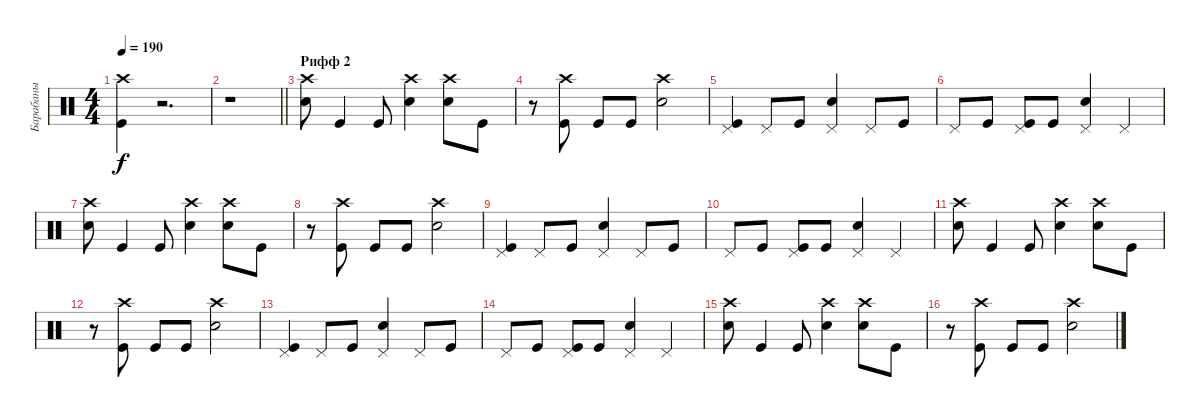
\track ("Барабаны" "Барабаны") {instrument percussion}
\staff {score}
\articulation defaults
\ts (4 4)
\tempo 190
\clef neutral
\ks c
("Kick (hit)" "Crash high (hit)").4{dy f} r.2{d} |
\barLineRight lightlight
r.1 |
\section ("" "Рифф 2")
("Snare (hit) 2" "Crash high (hit)").8 "Kick (hit)".4 "Kick (hit)".8 ("Snare (hit) 2" "Crash high (hit)").4 ("Snare (hit) 2" "Crash high (hit)").8 "Kick (hit)".8 |
r.8 ("Kick (hit)" "Crash high (hit)").8 "Kick (hit)".8 "Kick (hit)".8 ("Snare (hit) 2" "Crash high (hit)").2 |
("Kick (hit)" "Pedal Hi-Hat (hit)").4 "Pedal Hi-Hat (hit)".8 "Kick (hit)".8 ("Snare (hit) 2" "Pedal Hi-Hat (hit)").4 "Pedal Hi-Hat (hit)".8 "Kick (hit)".8 |
"Pedal Hi-Hat (hit)".8 "Kick (hit)".8 ("Kick (hit)" "Pedal Hi-Hat (hit)").8 "Kick (hit)".8 ("Snare (hit) 2" "Pedal Hi-Hat (hit)").4 "Pedal Hi-Hat (hit)".4 |
("Snare (hit) 2" "Crash high (hit)").8 "Kick (hit)".4 "Kick (hit)".8 ("Snare (hit) 2" "Crash high (hit)").4 ("Snare (hit) 2" "Crash high (hit)").8 "Kick (hit)".8 |
r.8 ("Kick (hit)" "Crash high (hit)").8 "Kick (hit)".8 "Kick (hit)".8 ("Snare (hit) 2" "Crash high (hit)").2 |
("Kick (hit)" "Pedal Hi-Hat (hit)").4 "Pedal Hi-Hat (hit)".8 "Kick (hit)".8 ("Snare (hit) 2" "Pedal Hi-Hat (hit)").4 "Pedal Hi-Hat (hit)".8 "Kick (hit)".8 |
"Pedal Hi-Hat (hit)".8 "Kick (hit)".8 ("Kick (hit)" "Pedal Hi-Hat (hit)").8 "Kick (hit)".8 ("Snare (hit) 2" "Pedal Hi-Hat (hit)").4 "Pedal Hi-Hat (hit)".4 |
("Snare (hit) 2" "Crash high (hit)").8 "Kick (hit)".4 "Kick (hit)".8 ("Snare (hit) 2" "Crash high (hit)").4 ("Snare (hit) 2" "Crash high (hit)").8 "Kick (hit)".8 |
r.8 ("Kick (hit)" "Crash high (hit)").8 "Kick (hit)".8 "Kick (hit)".8 ("Snare (hit) 2" "Crash high (hit)").2 |
("Kick (hit)" "Pedal Hi-Hat (hit)").4 "Pedal Hi-Hat (hit)".8 "Kick (hit)".8 ("Snare (hit) 2" "Pedal Hi-Hat (hit)").4 "Pedal Hi-Hat (hit)".8 "Kick (hit)".8 |
"Pedal Hi-Hat (hit)".8 "Kick (hit)".8 ("Kick (hit)" "Pedal Hi-Hat (hit)").8 "Kick (hit)".8 ("Snare (hit) 2" "Pedal Hi-Hat (hit)").4 "Pedal Hi-Hat (hit)".4 |
("Snare (hit) 2" "Crash high (hit)").8 "Kick (hit)".4 "Kick (hit)".8 ("Snare (hit) 2" "Crash high (hit)").4 ("Snare (hit) 2" "Crash high (hit)").8 "Kick (hit)".8 |
r.8 ("Kick (hit)" "Crash high (hit)").8 "Kick (hit)".8 "Kick (hit)".8 ("Snare (hit) 2" "Crash high (hit)").2
